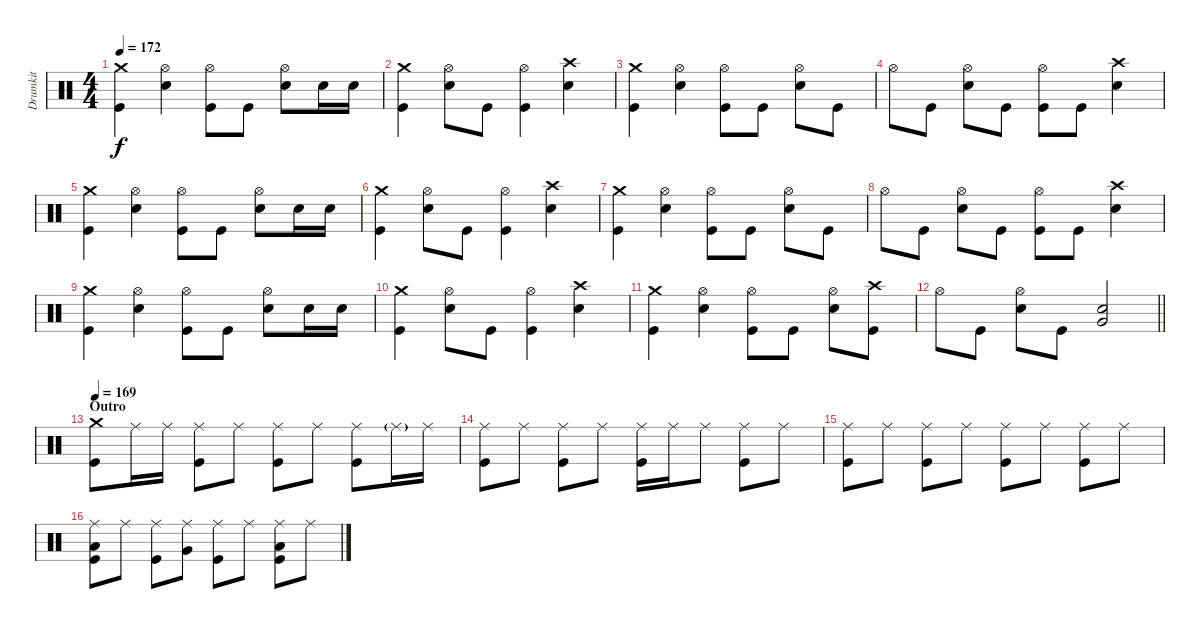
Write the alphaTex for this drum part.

\track ("Drumkit" "Drumkit") {instrument percussion}
\staff {score}
\articulation defaults
\ts (4 4)
\tempo 172
\clef neutral
\ks c
("Crash medium (hit)" "Kick (hit)").4{dy f} ("Hi-Hat (open)" "Snare (hit) 2").4 ("Hi-Hat (open)" "Kick (hit)").8 "Kick (hit)".8 ("Hi-Hat (open)" "Snare (hit) 2").8 "Snare (hit) 2".16 "Snare (hit) 2".16 |
("Crash medium (hit)" "Kick (hit)").4 ("Hi-Hat (open)" "Snare (hit) 2").8 "Kick (hit)".8 ("Hi-Hat (open)" "Kick (hit)").4 ("Crash high (hit)" "Snare (hit) 2").4 |
("Crash medium (hit)" "Kick (hit)").4 ("Hi-Hat (open)" "Snare (hit) 2").4 ("Hi-Hat (open)" "Kick (hit)").8 "Kick (hit)".8 ("Hi-Hat (open)" "Snare (hit) 2").8 "Kick (hit)".8 |
"Hi-Hat (open)".8 "Kick (hit)".8 ("Hi-Hat (open)" "Snare (hit) 2").8 "Kick (hit)".8 ("Hi-Hat (open)" "Kick (hit)").8 "Kick (hit)".8 ("Crash high (hit)" "Snare (hit) 2").4 |
("Crash medium (hit)" "Kick (hit)").4 ("Hi-Hat (open)" "Snare (hit) 2").4 ("Hi-Hat (open)" "Kick (hit)").8 "Kick (hit)".8 ("Hi-Hat (open)" "Snare (hit) 2").8 "Snare (hit) 2".16 "Snare (hit) 2".16 |
("Crash medium (hit)" "Kick (hit)").4 ("Hi-Hat (open)" "Snare (hit) 2").8 "Kick (hit)".8 ("Hi-Hat (open)" "Kick (hit)").4 ("Crash high (hit)" "Snare (hit) 2").4 |
("Crash medium (hit)" "Kick (hit)").4 ("Hi-Hat (open)" "Snare (hit) 2").4 ("Hi-Hat (open)" "Kick (hit)").8 "Kick (hit)".8 ("Hi-Hat (open)" "Snare (hit) 2").8 "Kick (hit)".8 |
"Hi-Hat (open)".8 "Kick (hit)".8 ("Hi-Hat (open)" "Snare (hit) 2").8 "Kick (hit)".8 ("Hi-Hat (open)" "Kick (hit)").8 "Kick (hit)".8 ("Crash high (hit)" "Snare (hit) 2").4 |
("Crash medium (hit)" "Kick (hit)").4 ("Hi-Hat (open)" "Snare (hit) 2").4 ("Hi-Hat (open)" "Kick (hit)").8 "Kick (hit)".8 ("Hi-Hat (open)" "Snare (hit) 2").8 "Snare (hit) 2".16 "Snare (hit) 2".16 |
("Crash medium (hit)" "Kick (hit)").4 ("Hi-Hat (open)" "Snare (hit) 2").8 "Kick (hit)".8 ("Hi-Hat (open)" "Kick (hit)").4 ("Crash high (hit)" "Snare (hit) 2").4 |
("Crash medium (hit)" "Kick (hit)").4 ("Hi-Hat (open)" "Snare (hit) 2").4 ("Hi-Hat (open)" "Kick (hit)").8 "Kick (hit)".8 ("Hi-Hat (open)" "Snare (hit) 2").8 ("Crash high (hit)" "Kick (hit)").8 |
\barLineRight lightlight "Hi-Hat (open)".8 "Kick (hit)".8
("Hi-Hat (open)" "Snare (hit) 2").8 "Kick (hit)".8 ("Very Low Tom (hit)" "Snare (hit) 2").2 |
\section ("" "Outro")
\tempo 169
("Crash medium (hit)" "Kick (hit)").8 "Ride (middle)".16 "Ride (middle)".16 ("Ride (middle)" "Kick (hit)").8 "Ride (middle)".8 ("Ride (middle)" "Kick (hit)").8 "Ride (middle)".8 ("Ride (middle)" "Kick (hit)").8 "Ride (middle)"{g}.16 "Ride (middle)".16 |
("Ride (middle)" "Kick (hit)").8 "Ride (middle)".8 ("Ride (middle)" "Kick (hit)").8 "Ride (middle)".8 ("Ride (middle)" "Kick (hit)").16 "Ride (middle)".16 "Ride (middle)".8 ("Ride (middle)" "Kick (hit)").8 "Ride (middle)".8 |
("Ride (middle)" "Kick (hit)").8 "Ride (middle)".8 ("Ride (middle)" "Kick (hit)").8 "Ride (middle)".8 ("Ride (middle)" "Kick (hit)").8 "Ride (middle)".8 ("Ride (middle)" "Kick (hit)").8 "Ride (middle)".8 |
("Ride (middle)" "Low Tom (hit)" "Kick (hit)").8 "Ride (middle)".8 ("Ride (middle)" "Kick (hit)").8 ("Ride (middle)" "Very Low Tom (hit)").8 ("Ride (middle)" "Kick (hit)").8 "Ride (middle)".8 ("Ride (middle)" "Low Floor Tom (hit)" "Kick (hit)").8 "Ride (middle)".8
